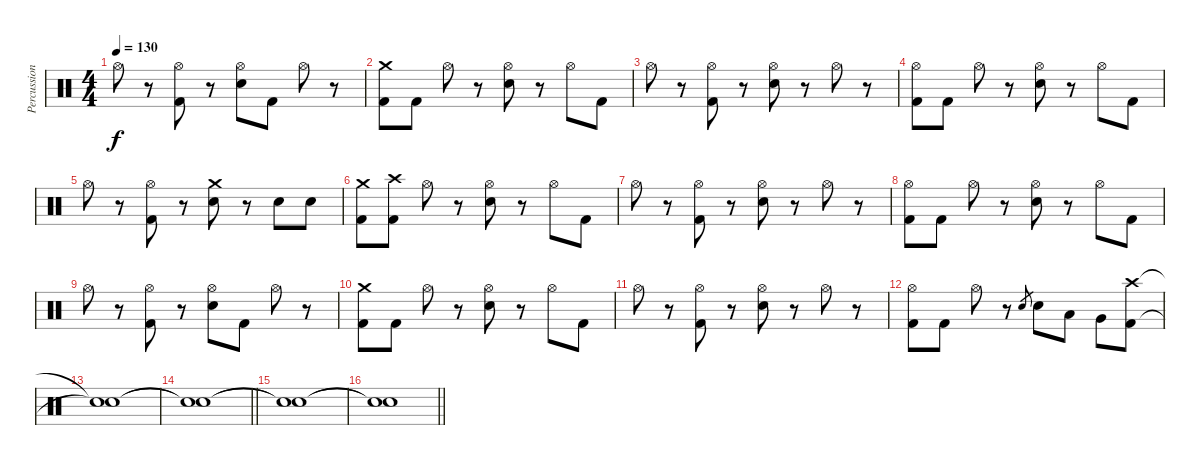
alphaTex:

\track ("Percussion" "Percussion") {instrument percussion}
\staff {score}
\articulation defaults
\ts (4 4)
\tempo 130
\clef neutral
\ks c "Hi-Hat (open)".8{dy f}
r.8 ("Hi-Hat (open)" "Kick (hit) 2").8 r.8 ("Hi-Hat (open)" "Electric Snare (hit)").8 "Kick (hit) 2".8 "Hi-Hat (open)".8 r.8 |
("Crash medium (hit)" "Kick (hit) 2").8 "Kick (hit) 2".8 "Hi-Hat (open)".8 r.8 ("Hi-Hat (open)" "Electric Snare (hit)").8 r.8 "Hi-Hat (open)".8 "Kick (hit) 2".8 |
"Hi-Hat (open)".8 r.8 ("Hi-Hat (open)" "Kick (hit) 2").8 r.8 ("Hi-Hat (open)" "Electric Snare (hit)").8 r.8 "Hi-Hat (open)".8 r.8 |
("Hi-Hat (open)" "Kick (hit) 2").8 "Kick (hit) 2".8 "Hi-Hat (open)".8 r.8 ("Hi-Hat (open)" "Electric Snare (hit)").8 r.8 "Hi-Hat (open)".8 "Kick (hit) 2".8 |
"Hi-Hat (open)".8 r.8 ("Hi-Hat (open)" "Kick (hit) 2").8 r.8 ("Crash medium (hit)" "Electric Snare (hit)").8 r.8 "Electric Snare (hit)".8 "Electric Snare (hit)".8 |
("Crash medium (hit)" "Kick (hit) 2").8 ("Crash high (hit)" "Kick (hit) 2").8 "Hi-Hat (open)".8 r.8 ("Hi-Hat (open)" "Electric Snare (hit)").8 r.8 "Hi-Hat (open)".8 "Kick (hit) 2".8 |
"Hi-Hat (open)".8 r.8 ("Hi-Hat (open)" "Kick (hit) 2").8 r.8 ("Hi-Hat (open)" "Electric Snare (hit)").8 r.8 "Hi-Hat (open)".8 r.8 |
("Hi-Hat (open)" "Kick (hit) 2").8 "Kick (hit) 2".8 "Hi-Hat (open)".8 r.8 ("Hi-Hat (open)" "Electric Snare (hit)").8 r.8 "Hi-Hat (open)".8 "Kick (hit) 2".8 |
"Hi-Hat (open)".8 r.8 ("Hi-Hat (open)" "Kick (hit) 2").8 r.8 ("Hi-Hat (open)" "Electric Snare (hit)").8 "Kick (hit) 2".8 "Hi-Hat (open)".8 r.8 |
("Crash medium (hit)" "Kick (hit) 2").8 "Kick (hit) 2".8 "Hi-Hat (open)".8 r.8 ("Hi-Hat (open)" "Electric Snare (hit)").8 r.8 "Hi-Hat (open)".8 "Kick (hit) 2".8 |
"Hi-Hat (open)".8 r.8 ("Hi-Hat (open)" "Kick (hit) 2").8 r.8 ("Hi-Hat (open)" "Electric Snare (hit)").8 r.8 "Hi-Hat (open)".8 r.8 |
("Hi-Hat (open)" "Kick (hit) 2").8 "Kick (hit) 2".8 "Hi-Hat (open)".8 r.8 "Electric Snare (hit)".8{gr} "Electric Snare (hit)".8 "Low Tom (hit)".8 "Very Low Tom (hit)".8 ("Crash high (hit)" "Kick (hit) 2").8 |
("Snare (hit)"{t} "Snare (hit)"{t}).1 |
\barLineRight lightlight
("Snare (hit)"{t} "Snare (hit)"{t}).1 |
("Snare (hit)"{t} "Snare (hit)"{t}).1 |
\barLineRight lightlight
("Snare (hit)"{t} "Snare (hit)"{t}).1
